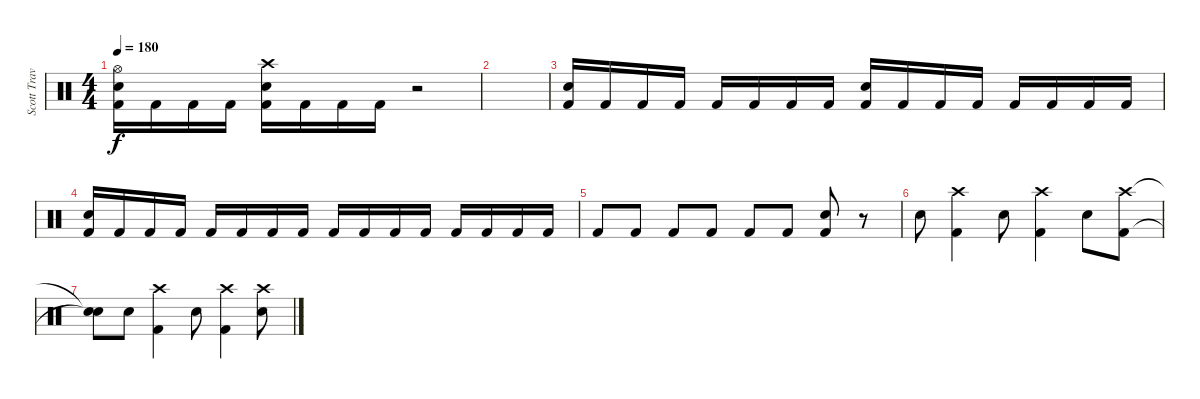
\track ("Scott Travis" "Scott Trav") {instrument percussion}
\staff {score}
\articulation defaults
\ts (4 4)
\tempo 180
\clef neutral
\ks c
("Hi-Hat (open)" "Snare (hit) 2" "Kick (hit) 2").16{dy f} "Kick (hit) 2".16 "Kick (hit) 2".16 "Kick (hit) 2".16 ("Crash high (hit)" "Snare (hit) 2" "Kick (hit) 2").16 "Kick (hit) 2".16 "Kick (hit) 2".16 "Kick (hit) 2".16 r.2 |
|
("Snare (hit) 2" "Kick (hit) 2").16 "Kick (hit) 2".16 "Kick (hit) 2".16 "Kick (hit) 2".16 "Kick (hit) 2".16 "Kick (hit) 2".16 "Kick (hit) 2".16 "Kick (hit) 2".16 ("Snare (hit) 2" "Kick (hit) 2").16 "Kick (hit) 2".16 "Kick (hit) 2".16 "Kick (hit) 2".16 "Kick (hit) 2".16 "Kick (hit) 2".16 "Kick (hit) 2".16 "Kick (hit) 2".16 |
("Snare (hit) 2" "Kick (hit) 2").16 "Kick (hit) 2".16 "Kick (hit) 2".16 "Kick (hit) 2".16 "Kick (hit) 2".16 "Kick (hit) 2".16 "Kick (hit) 2".16 "Kick (hit) 2".16 "Kick (hit) 2".16 "Kick (hit) 2".16 "Kick (hit) 2".16 "Kick (hit) 2".16 "Kick (hit) 2".16 "Kick (hit) 2".16 "Kick (hit) 2".16 "Kick (hit) 2".16 |
"Kick (hit) 2".8 "Kick (hit) 2".8 "Kick (hit) 2".8 "Kick (hit) 2".8 "Kick (hit) 2".8 "Kick (hit) 2".8 ("Snare (hit) 2" "Kick (hit) 2").8 r.8 |
"Snare (hit) 2".8 ("Crash high (hit)" "Kick (hit) 2").4 "Snare (hit) 2".8 ("Crash high (hit)" "Kick (hit) 2").4 "Snare (hit) 2".8 ("Crash high (hit)" "Kick (hit) 2").8 |
("Snare (hit)"{t} "Snare (hit)"{t}).8 "Snare (hit) 2".8 ("Crash high (hit)" "Kick (hit) 2").4 "Snare (hit) 2".8 ("Crash high (hit)" "Kick (hit) 2").4 ("Crash high (hit)" "Snare (hit) 2").8
